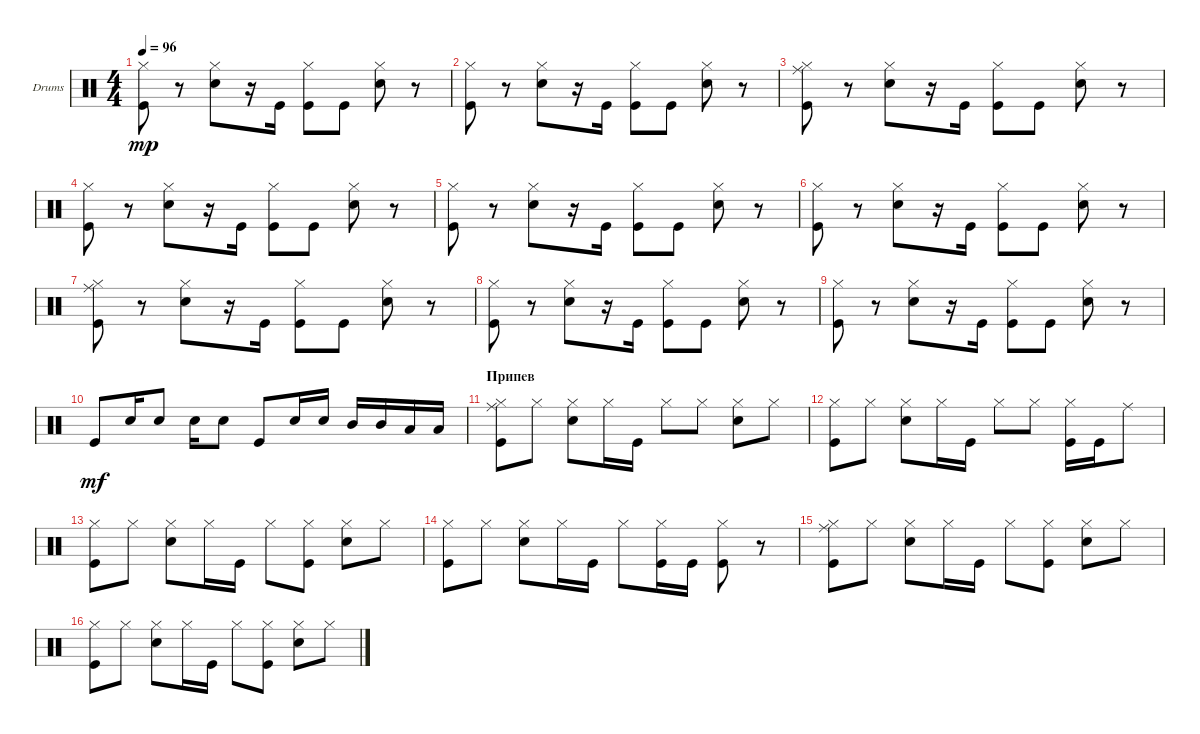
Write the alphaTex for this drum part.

\bracketExtendMode groupsimilarinstruments
\firstSystemTrackNameOrientation horizontal
\otherSystemsTrackNameOrientation horizontal
\track ("Drumkit" "Drums") {instrument percussion}
\staff {score}
\articulation defaults
\ts (4 4)
\tempo 96
\clef neutral
\ks c
("Kick (hit)" "Hi-Hat (closed)").8{dy mp} r.8 ("Hi-Hat (closed)" "Snare (hit) 2").8 r.16 "Kick (hit)".16 ("Hi-Hat (closed)" "Kick (hit)").8 "Kick (hit)".8 ("Hi-Hat (closed)" "Snare (hit) 2").8 r.8 |
("Kick (hit)" "Hi-Hat (closed)").8 r.8 ("Hi-Hat (closed)" "Snare (hit) 2").8 r.16 "Kick (hit)".16 ("Hi-Hat (closed)" "Kick (hit)").8 "Kick (hit)".8 ("Hi-Hat (closed)" "Snare (hit) 2").8 r.8 |
("Kick (hit)" "Hi-Hat (closed)" "Ride (middle)").8 r.8 ("Hi-Hat (closed)" "Snare (hit) 2").8 r.16 "Kick (hit)".16 ("Hi-Hat (closed)" "Kick (hit)").8 "Kick (hit)".8 ("Hi-Hat (closed)" "Snare (hit) 2").8 r.8 |
("Kick (hit)" "Hi-Hat (closed)").8 r.8 ("Hi-Hat (closed)" "Snare (hit) 2").8 r.16 "Kick (hit)".16 ("Hi-Hat (closed)" "Kick (hit)").8 "Kick (hit)".8 ("Hi-Hat (closed)" "Snare (hit) 2").8 r.8 |
("Kick (hit)" "Hi-Hat (closed)").8 r.8 ("Hi-Hat (closed)" "Snare (hit) 2").8 r.16 "Kick (hit)".16 ("Hi-Hat (closed)" "Kick (hit)").8 "Kick (hit)".8 ("Hi-Hat (closed)" "Snare (hit) 2").8 r.8 |
("Kick (hit)" "Hi-Hat (closed)").8 r.8 ("Hi-Hat (closed)" "Snare (hit) 2").8 r.16 "Kick (hit)".16 ("Hi-Hat (closed)" "Kick (hit)").8 "Kick (hit)".8 ("Hi-Hat (closed)" "Snare (hit) 2").8 r.8 |
("Kick (hit)" "Hi-Hat (closed)" "Ride (middle)").8 r.8 ("Hi-Hat (closed)" "Snare (hit) 2").8 r.16 "Kick (hit)".16 ("Hi-Hat (closed)" "Kick (hit)").8 "Kick (hit)".8 ("Hi-Hat (closed)" "Snare (hit) 2").8 r.8 |
("Kick (hit)" "Hi-Hat (closed)").8 r.8 ("Hi-Hat (closed)" "Snare (hit) 2").8 r.16 "Kick (hit)".16 ("Hi-Hat (closed)" "Kick (hit)").8 "Kick (hit)".8 ("Hi-Hat (closed)" "Snare (hit) 2").8 r.8 |
("Kick (hit)" "Hi-Hat (closed)").8 r.8 ("Hi-Hat (closed)" "Snare (hit) 2").8 r.16 "Kick (hit)".16 ("Hi-Hat (closed)" "Kick (hit)").8 "Kick (hit)".8 ("Hi-Hat (closed)" "Snare (hit) 2").8 r.8 |
"Kick (hit)".8{dy mf} "Snare (hit) 2".16 "Snare (hit) 2".8 "Snare (hit) 2".16 "Snare (hit) 2".8 "Kick (hit)".8 "Snare (hit) 2".16 "Snare (hit) 2".16 "Mid Tom (hit)".16 "Mid Tom (hit)".16 "Low Tom (hit)".16 "Low Tom (hit)".16 |
\section ("" "Припев")
("Kick (hit)" "Hi-Hat (closed)" "Ride (middle)").8 "Hi-Hat (closed)".8 ("Hi-Hat (closed)" "Snare (hit) 2").8 "Hi-Hat (closed)".16 "Kick (hit)".16 "Hi-Hat (closed)".8 "Hi-Hat (closed)".8 ("Hi-Hat (closed)" "Snare (hit) 2").8 "Hi-Hat (closed)".8 |
("Kick (hit)" "Hi-Hat (closed)").8 "Hi-Hat (closed)".8 ("Hi-Hat (closed)" "Snare (hit) 2").8 "Hi-Hat (closed)".16 "Kick (hit)".16 "Hi-Hat (closed)".8 "Hi-Hat (closed)".8 ("Hi-Hat (closed)" "Kick (hit)").16 "Kick (hit)".16 "Ride (middle)".8 |
("Kick (hit)" "Hi-Hat (closed)").8 "Hi-Hat (closed)".8 ("Hi-Hat (closed)" "Snare (hit) 2").8 "Hi-Hat (closed)".16 "Kick (hit)".16 "Hi-Hat (closed)".8 ("Hi-Hat (closed)" "Kick (hit)").8 ("Hi-Hat (closed)" "Snare (hit) 2").8 "Hi-Hat (closed)".8 |
("Kick (hit)" "Hi-Hat (closed)").8 "Hi-Hat (closed)".8 ("Hi-Hat (closed)" "Snare (hit) 2").8 "Hi-Hat (closed)".16 "Kick (hit)".16 "Hi-Hat (closed)".8 ("Hi-Hat (closed)" "Kick (hit)").16 "Kick (hit)".16 ("Hi-Hat (closed)" "Kick (hit)").8 r.8 |
("Kick (hit)" "Hi-Hat (closed)" "Ride (middle)").8 "Hi-Hat (closed)".8 ("Hi-Hat (closed)" "Snare (hit) 2").8 "Hi-Hat (closed)".16 "Kick (hit)".16 "Hi-Hat (closed)".8 ("Hi-Hat (closed)" "Kick (hit)").8 ("Hi-Hat (closed)" "Snare (hit) 2").8 "Hi-Hat (closed)".8 |
("Kick (hit)" "Hi-Hat (closed)").8 "Hi-Hat (closed)".8 ("Hi-Hat (closed)" "Snare (hit) 2").8 "Hi-Hat (closed)".16 "Kick (hit)".16 "Hi-Hat (closed)".8 ("Hi-Hat (closed)" "Kick (hit)").8 ("Hi-Hat (closed)" "Snare (hit) 2").8 "Hi-Hat (closed)".8
